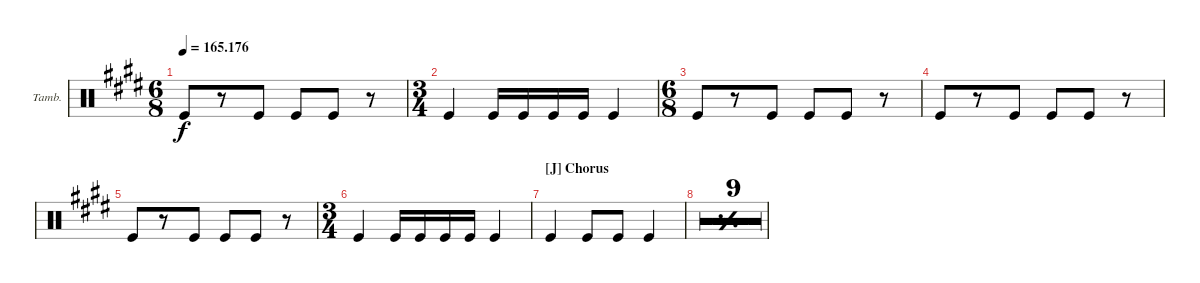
\defaultSystemsLayout 4
\bracketExtendMode groupsimilarinstruments
\firstSystemTrackNameOrientation horizontal
\otherSystemsTrackNameOrientation horizontal
\track ("Tambourine" "Tamb.") {multiBarRest instrument percussion}
\staff {score}
\articulation defaults
\ts (6 8)
\tempo
165.176
\accidentals auto
\clef neutral
\ottava regular
\simile none
\ks e "Kick (hit)".8{dy f}
r.8 "Kick (hit)".8 "Kick (hit)".8 "Kick (hit)".8 r.8 |
\ts (3 4)
"Kick (hit)".4 "Kick (hit)".16 "Kick (hit)".16 "Kick (hit)".16 "Kick (hit)".16 "Kick (hit)".4 |
\ts (6 8)
"Kick (hit)".8 r.8 "Kick (hit)".8 "Kick (hit)".8 "Kick (hit)".8 r.8 |
"Kick (hit)".8 r.8 "Kick (hit)".8 "Kick (hit)".8 "Kick (hit)".8 r.8 |
"Kick (hit)".8 r.8 "Kick (hit)".8 "Kick (hit)".8 "Kick (hit)".8 r.8 |
\ts (3 4)
"Kick (hit)".4 "Kick (hit)".16 "Kick (hit)".16 "Kick (hit)".16 "Kick (hit)".16 "Kick (hit)".4 |
\section ("J" "Chorus")
"Kick (hit)".4 "Kick (hit)".8 "Kick (hit)".8 "Kick (hit)".4 |
\simile simple
|
\simile firstofdouble
|
\simile secondofdouble
|
\simile firstofdouble
|
\simile secondofdouble
|
\simile firstofdouble
|
\simile secondofdouble
|
\simile firstofdouble
|
\simile secondofdouble
